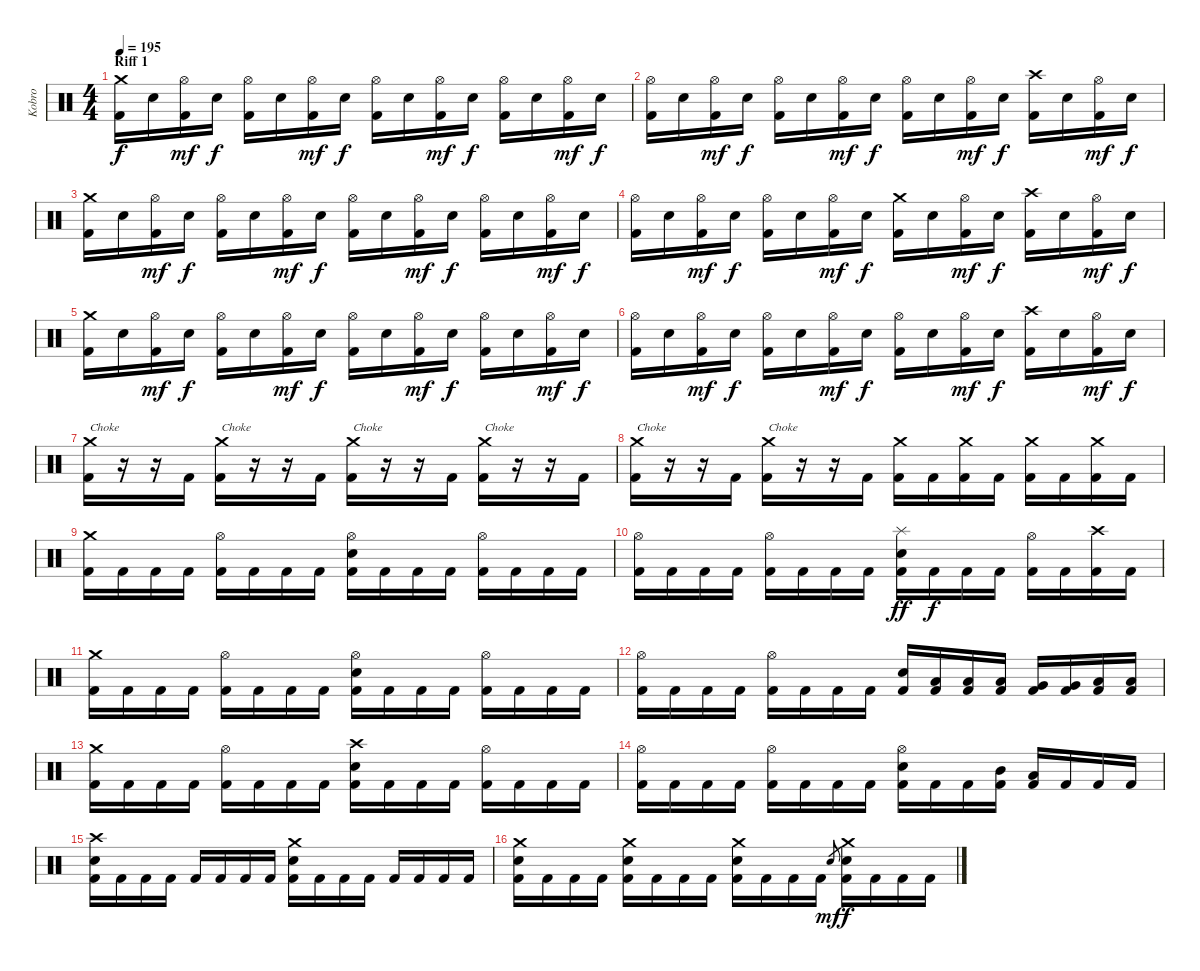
\track ("Kobro" "Kobro") {instrument percussion}
\staff {score}
\articulation defaults
\ts (4 4)
\section ("" "Riff 1")
\tempo 195
\clef neutral
\ks c
("Crash medium (hit)" "Kick (hit) 2").16{dy f} "Electric Snare (hit)".16 ("Hi-Hat (open)" "Kick (hit) 2").16{dy mf} "Electric Snare (hit)".16{dy f} ("Hi-Hat (open)" "Kick (hit) 2").16 "Electric Snare (hit)".16 ("Hi-Hat (open)" "Kick (hit) 2").16{dy mf} "Electric Snare (hit)".16{dy f} ("Hi-Hat (open)" "Kick (hit) 2").16 "Electric Snare (hit)".16 ("Hi-Hat (open)" "Kick (hit) 2").16{dy mf} "Electric Snare (hit)".16{dy f} ("Hi-Hat (open)" "Kick (hit) 2").16 "Electric Snare (hit)".16 ("Hi-Hat (open)" "Kick (hit) 2").16{dy mf} "Electric Snare (hit)".16{dy f} |
("Hi-Hat (open)" "Kick (hit) 2").16 "Electric Snare (hit)".16 ("Hi-Hat (open)" "Kick (hit) 2").16{dy mf} "Electric Snare (hit)".16{dy f} ("Hi-Hat (open)" "Kick (hit) 2").16 "Electric Snare (hit)".16 ("Hi-Hat (open)" "Kick (hit) 2").16{dy mf} "Electric Snare (hit)".16{dy f} ("Hi-Hat (open)" "Kick (hit) 2").16 "Electric Snare (hit)".16 ("Hi-Hat (open)" "Kick (hit) 2").16{dy mf} "Electric Snare (hit)".16{dy f} ("Crash high (hit)" "Kick (hit) 2").16 "Electric Snare (hit)".16 ("Hi-Hat (open)" "Kick (hit) 2").16{dy mf} "Electric Snare (hit)".16{dy f} |
("Crash medium (hit)" "Kick (hit) 2").16 "Electric Snare (hit)".16 ("Hi-Hat (open)" "Kick (hit) 2").16{dy mf} "Electric Snare (hit)".16{dy f} ("Hi-Hat (open)" "Kick (hit) 2").16 "Electric Snare (hit)".16 ("Hi-Hat (open)" "Kick (hit) 2").16{dy mf} "Electric Snare (hit)".16{dy f} ("Hi-Hat (open)" "Kick (hit) 2").16 "Electric Snare (hit)".16 ("Hi-Hat (open)" "Kick (hit) 2").16{dy mf} "Electric Snare (hit)".16{dy f} ("Hi-Hat (open)" "Kick (hit) 2").16 "Electric Snare (hit)".16 ("Hi-Hat (open)" "Kick (hit) 2").16{dy mf} "Electric Snare (hit)".16{dy f} |
("Hi-Hat (open)" "Kick (hit) 2").16 "Electric Snare (hit)".16 ("Hi-Hat (open)" "Kick (hit) 2").16{dy mf} "Electric Snare (hit)".16{dy f} ("Hi-Hat (open)" "Kick (hit) 2").16 "Electric Snare (hit)".16 ("Hi-Hat (open)" "Kick (hit) 2").16{dy mf} "Electric Snare (hit)".16{dy f} ("Crash medium (hit)" "Kick (hit) 2").16 "Electric Snare (hit)".16 ("Hi-Hat (open)" "Kick (hit) 2").16{dy mf} "Electric Snare (hit)".16{dy f} ("Crash high (hit)" "Kick (hit) 2").16 "Electric Snare (hit)".16 ("Hi-Hat (open)" "Kick (hit) 2").16{dy mf} "Electric Snare (hit)".16{dy f} |
("Crash medium (hit)" "Kick (hit) 2").16 "Electric Snare (hit)".16 ("Hi-Hat (open)" "Kick (hit) 2").16{dy mf} "Electric Snare (hit)".16{dy f} ("Hi-Hat (open)" "Kick (hit) 2").16 "Electric Snare (hit)".16 ("Hi-Hat (open)" "Kick (hit) 2").16{dy mf} "Electric Snare (hit)".16{dy f} ("Hi-Hat (open)" "Kick (hit) 2").16 "Electric Snare (hit)".16 ("Hi-Hat (open)" "Kick (hit) 2").16{dy mf} "Electric Snare (hit)".16{dy f} ("Hi-Hat (open)" "Kick (hit) 2").16 "Electric Snare (hit)".16 ("Hi-Hat (open)" "Kick (hit) 2").16{dy mf} "Electric Snare (hit)".16{dy f} |
("Hi-Hat (open)" "Kick (hit) 2").16 "Electric Snare (hit)".16 ("Hi-Hat (open)" "Kick (hit) 2").16{dy mf} "Electric Snare (hit)".16{dy f} ("Hi-Hat (open)" "Kick (hit) 2").16 "Electric Snare (hit)".16 ("Hi-Hat (open)" "Kick (hit) 2").16{dy mf} "Electric Snare (hit)".16{dy f} ("Hi-Hat (open)" "Kick (hit) 2").16 "Electric Snare (hit)".16 ("Hi-Hat (open)" "Kick (hit) 2").16{dy mf} "Electric Snare (hit)".16{dy f} ("Crash high (hit)" "Kick (hit) 2").16 "Electric Snare (hit)".16 ("Hi-Hat (open)" "Kick (hit) 2").16{dy mf} "Electric Snare (hit)".16{dy f} |
("Crash medium (hit)" "Kick (hit) 2").16{txt "Choke" volume 13} r.16 r.16{volume 2} "Kick (hit) 2".16{volume 13} ("Crash medium (hit)" "Kick (hit) 2").16{txt "Choke" volume 13} r.16 r.16 "Kick (hit) 2".16{volume 13} ("Crash medium (hit)" "Kick (hit) 2").16{txt "Choke" volume 13} r.16 r.16{volume 2} "Kick (hit) 2".16{volume 13} ("Crash medium (hit)" "Kick (hit) 2").16{txt "Choke" volume 13} r.16 r.16{volume 2} "Kick (hit) 2".16{volume 13} |
("Crash medium (hit)" "Kick (hit) 2").16{txt "Choke" volume 13} r.16 r.16{volume 2} "Kick (hit) 2".16{volume 13} ("Crash medium (hit)" "Kick (hit) 2").16{txt "Choke" volume 13} r.16 r.16{volume 2} "Kick (hit) 2".16{volume 13} ("Crash medium (hit)" "Kick (hit) 2").16{volume 13} "Kick (hit) 2".16 ("Crash medium (hit)" "Kick (hit) 2").16 "Kick (hit) 2".16 ("Crash medium (hit)" "Kick (hit) 2").16 "Kick (hit) 2".16 ("Crash medium (hit)" "Kick (hit) 2").16 "Kick (hit) 2".16 |
("Crash medium (hit)" "Kick (hit) 2").16 "Kick (hit) 2".16 "Kick (hit) 2".16 "Kick (hit) 2".16 ("Hi-Hat (open)" "Kick (hit) 2").16 "Kick (hit) 2".16 "Kick (hit) 2".16 "Kick (hit) 2".16 ("Hi-Hat (open)" "Electric Snare (hit)" "Kick (hit) 2").16 "Kick (hit) 2".16 "Kick (hit) 2".16 "Kick (hit) 2".16 ("Hi-Hat (open)" "Kick (hit) 2").16 "Kick (hit) 2".16 "Kick (hit) 2".16 "Kick (hit) 2".16 |
("Hi-Hat (open)" "Kick (hit) 2").16 "Kick (hit) 2".16 "Kick (hit) 2".16 "Kick (hit) 2".16 ("Hi-Hat (open)" "Kick (hit) 2").16 "Kick (hit) 2".16 "Kick (hit) 2".16 "Kick (hit) 2".16 ("Splash (hit)" "Electric Snare (hit)" "Kick (hit) 2").16{dy ff} "Kick (hit) 2".16{dy f} "Kick (hit) 2".16 "Kick (hit) 2".16 ("Hi-Hat (open)" "Kick (hit) 2").16 "Kick (hit) 2".16 ("Crash high (hit)" "Kick (hit) 2").16 "Kick (hit) 2".16 |
("Crash medium (hit)" "Kick (hit) 2").16 "Kick (hit) 2".16 "Kick (hit) 2".16 "Kick (hit) 2".16 ("Hi-Hat (open)" "Kick (hit) 2").16 "Kick (hit) 2".16 "Kick (hit) 2".16 "Kick (hit) 2".16 ("Hi-Hat (open)" "Electric Snare (hit)" "Kick (hit) 2").16 "Kick (hit) 2".16 "Kick (hit) 2".16 "Kick (hit) 2".16 ("Hi-Hat (open)" "Kick (hit) 2").16 "Kick (hit) 2".16 "Kick (hit) 2".16 "Kick (hit) 2".16 |
("Hi-Hat (open)" "Kick (hit) 2").16 "Kick (hit) 2".16 "Kick (hit) 2".16 "Kick (hit) 2".16 ("Hi-Hat (open)" "Kick (hit) 2").16 "Kick (hit) 2".16 "Kick (hit) 2".16 "Kick (hit) 2".16 ("Electric Snare (hit)" "Kick (hit) 2").16 ("Low Tom (hit)" "Kick (hit) 2").16 ("Low Tom (hit)" "Kick (hit) 2").16 ("Low Tom (hit)" "Kick (hit) 2").16 ("Very Low Tom (hit)" "Kick (hit) 2").16 ("Very Low Tom (hit)" "Kick (hit) 2").16 ("Low Floor Tom (hit)" "Kick (hit) 2").16 ("Low Floor Tom (hit)" "Kick (hit) 2").16 |
("Crash medium (hit)" "Kick (hit) 2").16 "Kick (hit) 2".16 "Kick (hit) 2".16 "Kick (hit) 2".16 ("Hi-Hat (open)" "Kick (hit) 2").16 "Kick (hit) 2".16 "Kick (hit) 2".16 "Kick (hit) 2".16 ("Crash high (hit)" "Electric Snare (hit)" "Kick (hit) 2").16 "Kick (hit) 2".16 "Kick (hit) 2".16 "Kick (hit) 2".16 ("Hi-Hat (open)" "Kick (hit) 2").16 "Kick (hit) 2".16 "Kick (hit) 2".16 "Kick (hit) 2".16 |
("Hi-Hat (open)" "Kick (hit) 2").16 "Kick (hit) 2".16 "Kick (hit) 2".16 "Kick (hit) 2".16 ("Hi-Hat (open)" "Kick (hit) 2").16 "Kick (hit) 2".16 "Kick (hit) 2".16 "Kick (hit) 2".16 ("Hi-Hat (open)" "Electric Snare (hit)" "Kick (hit) 2").16 "Kick (hit) 2".16 "Kick (hit) 2".16 ("Mid Tom (hit)" "Kick (hit) 2").16 ("Low Tom (hit)" "Kick (hit) 2").16 "Kick (hit) 2".16 "Kick (hit) 2".16 "Kick (hit) 2".16 |
("Crash high (hit)" "Electric Snare (hit)" "Kick (hit) 2").16 "Kick (hit) 2".16 "Kick (hit) 2".16 "Kick (hit) 2".16 "Kick (hit) 2".16 "Kick (hit) 2".16 "Kick (hit) 2".16 "Kick (hit) 2".16 ("Crash medium (hit)" "Electric Snare (hit)" "Kick (hit) 2").16 "Kick (hit) 2".16 "Kick (hit) 2".16 "Kick (hit) 2".16 "Kick (hit) 2".16 "Kick (hit) 2".16 "Kick (hit) 2".16 "Kick (hit) 2".16 |
("Crash medium (hit)" "Electric Snare (hit)" "Kick (hit) 2").16 "Kick (hit) 2".16 "Kick (hit) 2".16 "Kick (hit) 2".16 ("Crash medium (hit)" "Electric Snare (hit)" "Kick (hit) 2").16 "Kick (hit) 2".16 "Kick (hit) 2".16 "Kick (hit) 2".16 ("Crash medium (hit)" "Electric Snare (hit)" "Kick (hit) 2").16 "Kick (hit) 2".16 "Kick (hit) 2".16 "Kick (hit) 2".16 "Electric Snare (hit)".8{gr dy mf} ("Crash medium (hit)" "Electric Snare (hit)" "Kick (hit) 2").16{dy f} "Kick (hit) 2".16 "Kick (hit) 2".16 "Kick (hit) 2".16
